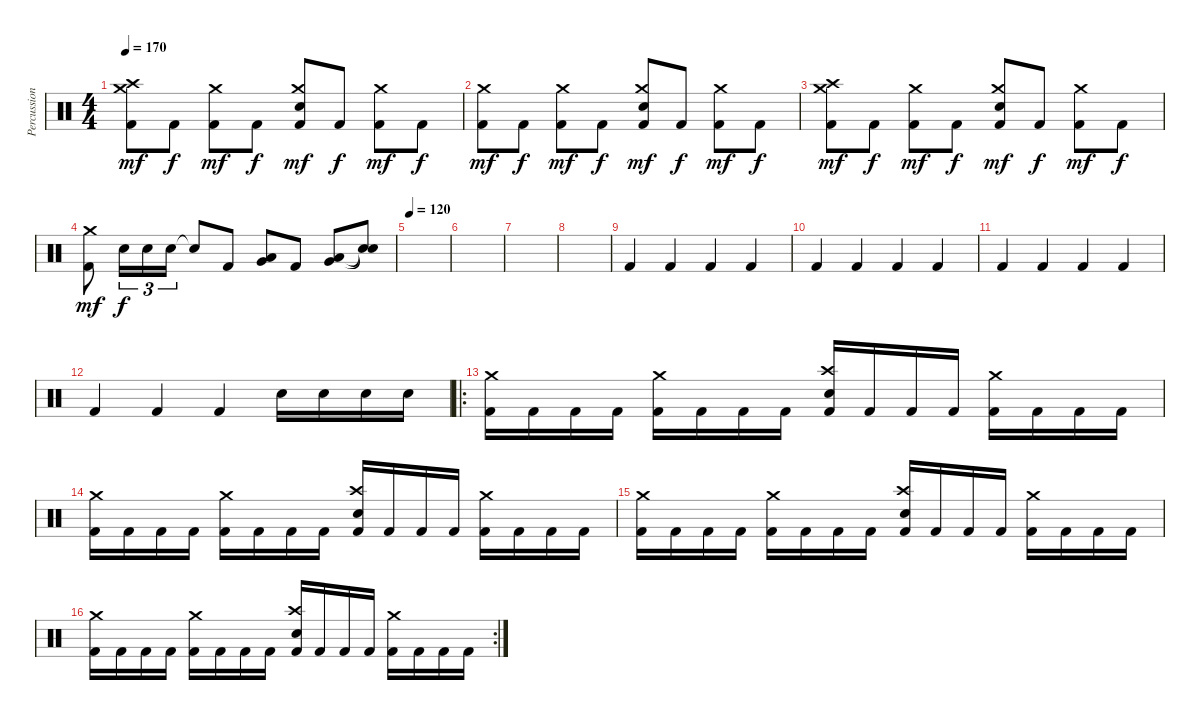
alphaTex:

\track ("Percussions" "Percussion") {instrument percussion}
\staff {score}
\articulation defaults
\ts (4 4)
\tempo 170
\clef neutral
\ks c
("Kick (hit) 2" "Crash high (hit)" "Crash medium (hit)").8{dy mf} "Kick (hit) 2".8{dy f} ("Kick (hit) 2" "Crash medium (hit)").8{dy mf} "Kick (hit) 2".8{dy f} ("Kick (hit) 2" "Snare (hit) 2" "Crash medium (hit)").8{dy mf} "Kick (hit) 2".8{dy f} ("Kick (hit) 2" "Crash medium (hit)").8{dy mf} "Kick (hit) 2".8{dy f} |
("Kick (hit) 2" "Crash medium (hit)").8{dy mf} "Kick (hit) 2".8{dy f} ("Kick (hit) 2" "Crash medium (hit)").8{dy mf} "Kick (hit) 2".8{dy f} ("Kick (hit) 2" "Snare (hit) 2" "Crash medium (hit)").8{dy mf} "Kick (hit) 2".8{dy f} ("Kick (hit) 2" "Crash medium (hit)").8{dy mf} "Kick (hit) 2".8{dy f} |
("Kick (hit) 2" "Crash high (hit)" "Crash medium (hit)").8{dy mf} "Kick (hit) 2".8{dy f} ("Kick (hit) 2" "Crash medium (hit)").8{dy mf} "Kick (hit) 2".8{dy f} ("Kick (hit) 2" "Snare (hit) 2" "Crash medium (hit)").8{dy mf} "Kick (hit) 2".8{dy f} ("Kick (hit) 2" "Crash medium (hit)").8{dy mf} "Kick (hit) 2".8{dy f} |
("Kick (hit) 2" "Crash medium (hit)").8{dy mf} "Snare (hit) 2".16{tu (3 2) dy f} "Snare (hit) 2".16{tu (3 2)} "Snare (hit) 2".16{tu (3 2)} "Snare (hit)"{t}.8 "Kick (hit) 2".8 ("Low Tom (hit)" "Very Low Tom (hit)").8 "Kick (hit) 2".8 ("Very Low Tom (hit)" "Low Floor Tom (hit)").8 ("Snare (hit)"{t} "Snare (hit)"{t}).8 |
\tempo 120
|
|
|
|
"Kick (hit) 2".4 "Kick (hit) 2".4 "Kick (hit) 2".4 "Kick (hit) 2".4 |
"Kick (hit) 2".4 "Kick (hit) 2".4 "Kick (hit) 2".4 "Kick (hit) 2".4 |
"Kick (hit) 2".4 "Kick (hit) 2".4 "Kick (hit) 2".4 "Kick (hit) 2".4 |
"Kick (hit) 2".4 "Kick (hit) 2".4 "Kick (hit) 2".4 "Electric Snare (hit)".16 "Electric Snare (hit)".16 "Electric Snare (hit)".16 "Electric Snare (hit)".16 |
\ro
("Crash medium (hit)" "Kick (hit) 2").16 "Kick (hit) 2".16 "Kick (hit) 2".16 "Kick (hit) 2".16 ("Crash medium (hit)" "Kick (hit) 2").16 "Kick (hit) 2".16 "Kick (hit) 2".16 "Kick (hit) 2".16 ("Crash high (hit)" "Electric Snare (hit)" "Kick (hit) 2").16 "Kick (hit) 2".16 "Kick (hit) 2".16 "Kick (hit) 2".16 ("Crash medium (hit)" "Kick (hit) 2").16 "Kick (hit) 2".16 "Kick (hit) 2".16 "Kick (hit) 2".16 |
("Crash medium (hit)" "Kick (hit) 2").16 "Kick (hit) 2".16 "Kick (hit) 2".16 "Kick (hit) 2".16 ("Crash medium (hit)" "Kick (hit) 2").16 "Kick (hit) 2".16 "Kick (hit) 2".16 "Kick (hit) 2".16 ("Crash high (hit)" "Electric Snare (hit)" "Kick (hit) 2").16 "Kick (hit) 2".16 "Kick (hit) 2".16 "Kick (hit) 2".16 ("Crash medium (hit)" "Kick (hit) 2").16 "Kick (hit) 2".16 "Kick (hit) 2".16 "Kick (hit) 2".16 |
("Crash medium (hit)" "Kick (hit) 2").16 "Kick (hit) 2".16 "Kick (hit) 2".16 "Kick (hit) 2".16 ("Crash medium (hit)" "Kick (hit) 2").16 "Kick (hit) 2".16 "Kick (hit) 2".16 "Kick (hit) 2".16 ("Crash high (hit)" "Electric Snare (hit)" "Kick (hit) 2").16 "Kick (hit) 2".16 "Kick (hit) 2".16 "Kick (hit) 2".16 ("Crash medium (hit)" "Kick (hit) 2").16 "Kick (hit) 2".16 "Kick (hit) 2".16 "Kick (hit) 2".16 |
\rc 2
("Crash medium (hit)" "Kick (hit) 2").16 "Kick (hit) 2".16 "Kick (hit) 2".16 "Kick (hit) 2".16 ("Crash medium (hit)" "Kick (hit) 2").16 "Kick (hit) 2".16 "Kick (hit) 2".16 "Kick (hit) 2".16 ("Crash high (hit)" "Electric Snare (hit)" "Kick (hit) 2").16 "Kick (hit) 2".16 "Kick (hit) 2".16 "Kick (hit) 2".16 ("Crash medium (hit)" "Kick (hit) 2").16 "Kick (hit) 2".16 "Kick (hit) 2".16 "Kick (hit) 2".16
